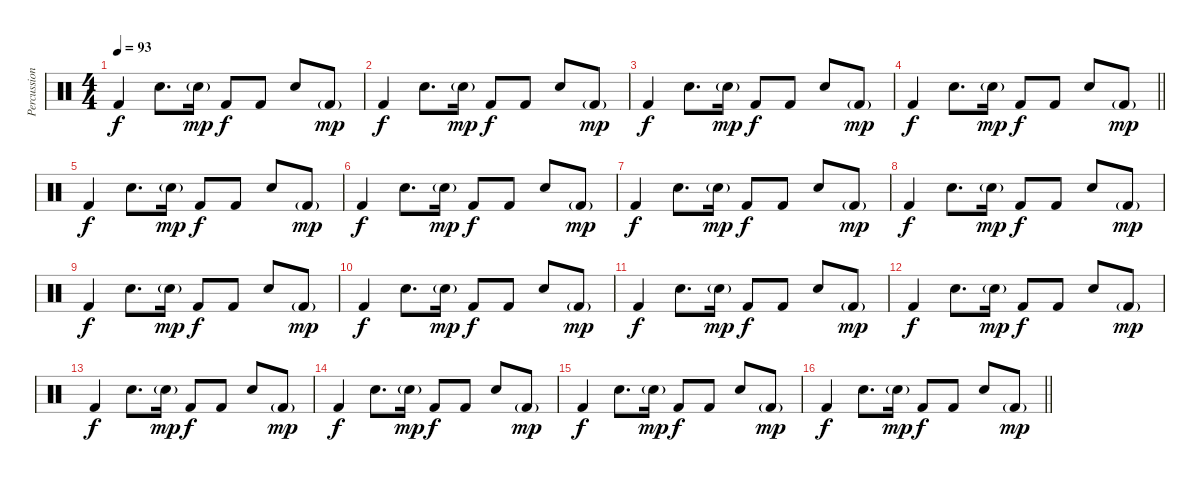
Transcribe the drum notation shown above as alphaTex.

\track ("Percussion" "Percussion") {instrument percussion}
\staff {score}
\articulation defaults
\ts (4 4)
\tempo 93
\clef neutral
\ks c "Kick (hit) 2".4{dy f} "Snare (hit) 2".8{d} "Snare (hit) 2"{g}.16{dy mp} "Kick (hit) 2".8{dy f} "Kick (hit) 2".8 "Snare (hit) 2".8 "Kick (hit) 2"{g}.8{dy mp}
|
"Kick (hit) 2".4{dy f} "Snare (hit) 2".8{d} "Snare (hit) 2"{g}.16{dy mp} "Kick (hit) 2".8{dy f} "Kick (hit) 2".8 "Snare (hit) 2".8 "Kick (hit) 2"{g}.8{dy mp} |
"Kick (hit) 2".4{dy f} "Snare (hit) 2".8{d} "Snare (hit) 2"{g}.16{dy mp} "Kick (hit) 2".8{dy f} "Kick (hit) 2".8 "Snare (hit) 2".8 "Kick (hit) 2"{g}.8{dy mp} |
\barLineRight lightlight "Kick (hit) 2".4{dy f} "Snare (hit) 2".8{d} "Snare (hit) 2"{g}.16{dy mp} "Kick (hit) 2".8{dy f} "Kick (hit) 2".8 "Snare (hit) 2".8 "Kick (hit) 2"{g}.8{dy mp}
|
"Kick (hit) 2".4{dy f} "Snare (hit) 2".8{d} "Snare (hit) 2"{g}.16{dy mp} "Kick (hit) 2".8{dy f} "Kick (hit) 2".8 "Snare (hit) 2".8 "Kick (hit) 2"{g}.8{dy mp} |
"Kick (hit) 2".4{dy f} "Snare (hit) 2".8{d} "Snare (hit) 2"{g}.16{dy mp} "Kick (hit) 2".8{dy f} "Kick (hit) 2".8 "Snare (hit) 2".8 "Kick (hit) 2"{g}.8{dy mp} |
"Kick (hit) 2".4{dy f} "Snare (hit) 2".8{d} "Snare (hit) 2"{g}.16{dy mp} "Kick (hit) 2".8{dy f} "Kick (hit) 2".8 "Snare (hit) 2".8 "Kick (hit) 2"{g}.8{dy mp} |
"Kick (hit) 2".4{dy f} "Snare (hit) 2".8{d} "Snare (hit) 2"{g}.16{dy mp} "Kick (hit) 2".8{dy f} "Kick (hit) 2".8 "Snare (hit) 2".8 "Kick (hit) 2"{g}.8{dy mp} |
"Kick (hit) 2".4{dy f} "Snare (hit) 2".8{d} "Snare (hit) 2"{g}.16{dy mp} "Kick (hit) 2".8{dy f} "Kick (hit) 2".8 "Snare (hit) 2".8 "Kick (hit) 2"{g}.8{dy mp} |
"Kick (hit) 2".4{dy f} "Snare (hit) 2".8{d} "Snare (hit) 2"{g}.16{dy mp} "Kick (hit) 2".8{dy f} "Kick (hit) 2".8 "Snare (hit) 2".8 "Kick (hit) 2"{g}.8{dy mp} |
"Kick (hit) 2".4{dy f} "Snare (hit) 2".8{d} "Snare (hit) 2"{g}.16{dy mp} "Kick (hit) 2".8{dy f} "Kick (hit) 2".8 "Snare (hit) 2".8 "Kick (hit) 2"{g}.8{dy mp} |
"Kick (hit) 2".4{dy f} "Snare (hit) 2".8{d} "Snare (hit) 2"{g}.16{dy mp} "Kick (hit) 2".8{dy f} "Kick (hit) 2".8 "Snare (hit) 2".8 "Kick (hit) 2"{g}.8{dy mp} |
"Kick (hit) 2".4{dy f} "Snare (hit) 2".8{d} "Snare (hit) 2"{g}.16{dy mp} "Kick (hit) 2".8{dy f} "Kick (hit) 2".8 "Snare (hit) 2".8 "Kick (hit) 2"{g}.8{dy mp} |
"Kick (hit) 2".4{dy f} "Snare (hit) 2".8{d} "Snare (hit) 2"{g}.16{dy mp} "Kick (hit) 2".8{dy f} "Kick (hit) 2".8 "Snare (hit) 2".8 "Kick (hit) 2"{g}.8{dy mp} |
"Kick (hit) 2".4{dy f} "Snare (hit) 2".8{d} "Snare (hit) 2"{g}.16{dy mp} "Kick (hit) 2".8{dy f} "Kick (hit) 2".8 "Snare (hit) 2".8 "Kick (hit) 2"{g}.8{dy mp} |
\barLineRight lightlight "Kick (hit) 2".4{dy f} "Snare (hit) 2".8{d} "Snare (hit) 2"{g}.16{dy mp} "Kick (hit) 2".8{dy f} "Kick (hit) 2".8 "Snare (hit) 2".8 "Kick (hit) 2"{g}.8{dy mp}
